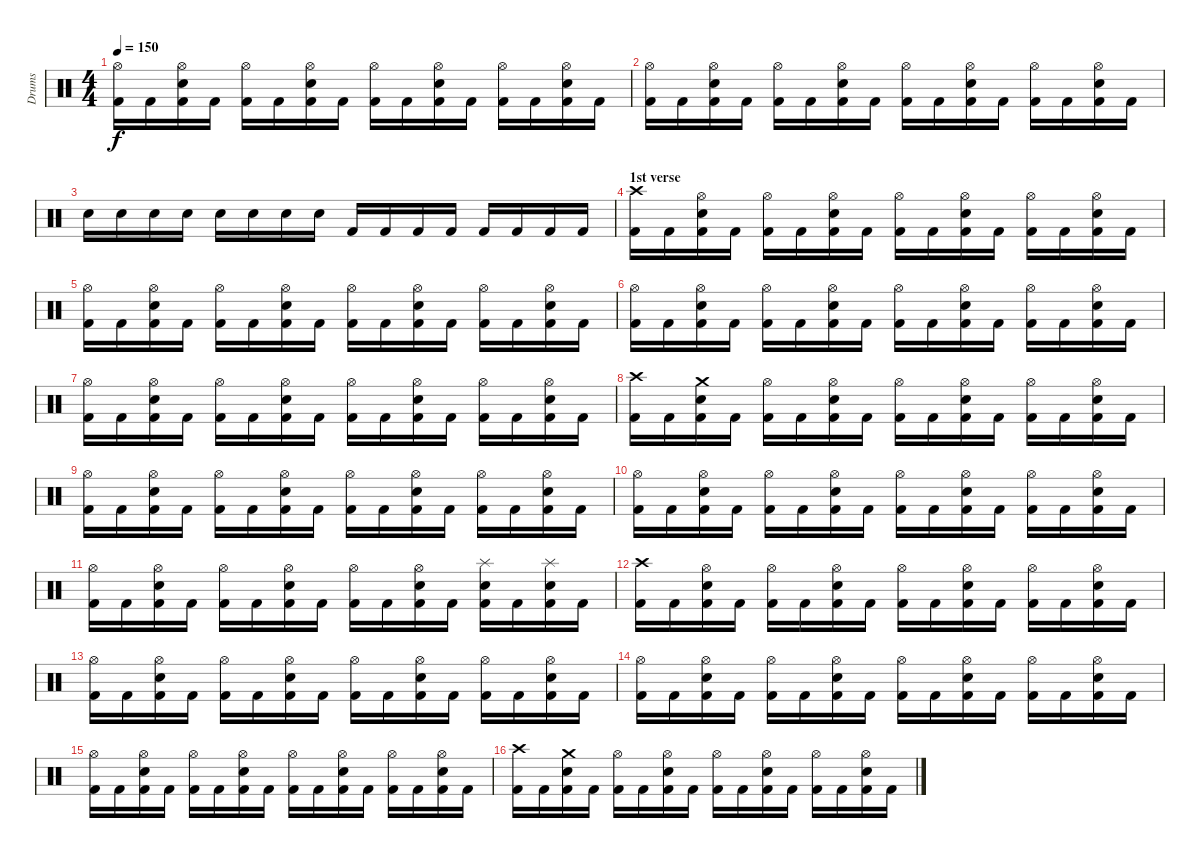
\track ("Drums" "Drums") {instrument percussion}
\staff {score}
\articulation defaults
\ts (4 4)
\tempo 150
\clef neutral
\ks c
("Hi-Hat (open)" "Kick (hit) 2").16{dy f} "Kick (hit) 2".16 ("Hi-Hat (open)" "Snare (hit) 2" "Kick (hit) 2").16 "Kick (hit) 2".16 ("Hi-Hat (open)" "Kick (hit) 2").16 "Kick (hit) 2".16 ("Hi-Hat (open)" "Snare (hit) 2" "Kick (hit) 2").16 "Kick (hit) 2".16 ("Hi-Hat (open)" "Kick (hit) 2").16 "Kick (hit) 2".16 ("Hi-Hat (open)" "Snare (hit) 2" "Kick (hit) 2").16 "Kick (hit) 2".16 ("Hi-Hat (open)" "Kick (hit) 2").16 "Kick (hit) 2".16 ("Hi-Hat (open)" "Snare (hit) 2" "Kick (hit) 2").16 "Kick (hit) 2".16 |
("Hi-Hat (open)" "Kick (hit) 2").16 "Kick (hit) 2".16 ("Hi-Hat (open)" "Snare (hit) 2" "Kick (hit) 2").16 "Kick (hit) 2".16 ("Hi-Hat (open)" "Kick (hit) 2").16 "Kick (hit) 2".16 ("Hi-Hat (open)" "Snare (hit) 2" "Kick (hit) 2").16 "Kick (hit) 2".16 ("Hi-Hat (open)" "Kick (hit) 2").16 "Kick (hit) 2".16 ("Hi-Hat (open)" "Snare (hit) 2" "Kick (hit) 2").16 "Kick (hit) 2".16 ("Hi-Hat (open)" "Kick (hit) 2").16 "Kick (hit) 2".16 ("Hi-Hat (open)" "Snare (hit) 2" "Kick (hit) 2").16 "Kick (hit) 2".16 |
"Snare (hit) 2".16 "Snare (hit) 2".16 "Snare (hit) 2".16 "Snare (hit) 2".16 "Snare (hit) 2".16 "Snare (hit) 2".16 "Snare (hit) 2".16 "Snare (hit) 2".16 "Kick (hit) 2".16 "Kick (hit) 2".16 "Kick (hit) 2".16 "Kick (hit) 2".16 "Kick (hit) 2".16 "Kick (hit) 2".16 "Kick (hit) 2".16 "Kick (hit) 2".16 |
\section ("" "1st verse")
("Crash high (hit)" "Kick (hit) 2").16 "Kick (hit) 2".16 ("Hi-Hat (open)" "Snare (hit) 2" "Kick (hit) 2").16 "Kick (hit) 2".16 ("Hi-Hat (open)" "Kick (hit) 2").16 "Kick (hit) 2".16 ("Hi-Hat (open)" "Snare (hit) 2" "Kick (hit) 2").16 "Kick (hit) 2".16 ("Hi-Hat (open)" "Kick (hit) 2").16 "Kick (hit) 2".16 ("Hi-Hat (open)" "Snare (hit) 2" "Kick (hit) 2").16 "Kick (hit) 2".16 ("Hi-Hat (open)" "Kick (hit) 2").16 "Kick (hit) 2".16 ("Hi-Hat (open)" "Snare (hit) 2" "Kick (hit) 2").16 "Kick (hit) 2".16 |
("Hi-Hat (open)" "Kick (hit) 2").16 "Kick (hit) 2".16 ("Hi-Hat (open)" "Snare (hit) 2" "Kick (hit) 2").16 "Kick (hit) 2".16 ("Hi-Hat (open)" "Kick (hit) 2").16 "Kick (hit) 2".16 ("Hi-Hat (open)" "Snare (hit) 2" "Kick (hit) 2").16 "Kick (hit) 2".16 ("Hi-Hat (open)" "Kick (hit) 2").16 "Kick (hit) 2".16 ("Hi-Hat (open)" "Snare (hit) 2" "Kick (hit) 2").16 "Kick (hit) 2".16 ("Hi-Hat (open)" "Kick (hit) 2").16 "Kick (hit) 2".16 ("Hi-Hat (open)" "Snare (hit) 2" "Kick (hit) 2").16 "Kick (hit) 2".16 |
("Hi-Hat (open)" "Kick (hit) 2").16 "Kick (hit) 2".16 ("Hi-Hat (open)" "Snare (hit) 2" "Kick (hit) 2").16 "Kick (hit) 2".16 ("Hi-Hat (open)" "Kick (hit) 2").16 "Kick (hit) 2".16 ("Hi-Hat (open)" "Snare (hit) 2" "Kick (hit) 2").16 "Kick (hit) 2".16 ("Hi-Hat (open)" "Kick (hit) 2").16 "Kick (hit) 2".16 ("Hi-Hat (open)" "Snare (hit) 2" "Kick (hit) 2").16 "Kick (hit) 2".16 ("Hi-Hat (open)" "Kick (hit) 2").16 "Kick (hit) 2".16 ("Hi-Hat (open)" "Snare (hit) 2" "Kick (hit) 2").16 "Kick (hit) 2".16 |
("Hi-Hat (open)" "Kick (hit) 2").16 "Kick (hit) 2".16 ("Hi-Hat (open)" "Snare (hit) 2" "Kick (hit) 2").16 "Kick (hit) 2".16 ("Hi-Hat (open)" "Kick (hit) 2").16 "Kick (hit) 2".16 ("Hi-Hat (open)" "Snare (hit) 2" "Kick (hit) 2").16 "Kick (hit) 2".16 ("Hi-Hat (open)" "Kick (hit) 2").16 "Kick (hit) 2".16 ("Hi-Hat (open)" "Snare (hit) 2" "Kick (hit) 2").16 "Kick (hit) 2".16 ("Hi-Hat (open)" "Kick (hit) 2").16 "Kick (hit) 2".16 ("Hi-Hat (open)" "Snare (hit) 2" "Kick (hit) 2").16 "Kick (hit) 2".16 |
("Crash high (hit)" "Kick (hit) 2").16 "Kick (hit) 2".16 ("Crash medium (hit)" "Snare (hit) 2" "Kick (hit) 2").16 "Kick (hit) 2".16 ("Hi-Hat (open)" "Kick (hit) 2").16 "Kick (hit) 2".16 ("Hi-Hat (open)" "Snare (hit) 2" "Kick (hit) 2").16 "Kick (hit) 2".16 ("Hi-Hat (open)" "Kick (hit) 2").16 "Kick (hit) 2".16 ("Hi-Hat (open)" "Snare (hit) 2" "Kick (hit) 2").16 "Kick (hit) 2".16 ("Hi-Hat (open)" "Kick (hit) 2").16 "Kick (hit) 2".16 ("Hi-Hat (open)" "Snare (hit) 2" "Kick (hit) 2").16 "Kick (hit) 2".16 |
("Hi-Hat (open)" "Kick (hit) 2").16 "Kick (hit) 2".16 ("Hi-Hat (open)" "Snare (hit) 2" "Kick (hit) 2").16 "Kick (hit) 2".16 ("Hi-Hat (open)" "Kick (hit) 2").16 "Kick (hit) 2".16 ("Hi-Hat (open)" "Snare (hit) 2" "Kick (hit) 2").16 "Kick (hit) 2".16 ("Hi-Hat (open)" "Kick (hit) 2").16 "Kick (hit) 2".16 ("Hi-Hat (open)" "Snare (hit) 2" "Kick (hit) 2").16 "Kick (hit) 2".16 ("Hi-Hat (open)" "Kick (hit) 2").16 "Kick (hit) 2".16 ("Hi-Hat (open)" "Snare (hit) 2" "Kick (hit) 2").16 "Kick (hit) 2".16 |
("Hi-Hat (open)" "Kick (hit) 2").16 "Kick (hit) 2".16 ("Hi-Hat (open)" "Snare (hit) 2" "Kick (hit) 2").16 "Kick (hit) 2".16 ("Hi-Hat (open)" "Kick (hit) 2").16 "Kick (hit) 2".16 ("Hi-Hat (open)" "Snare (hit) 2" "Kick (hit) 2").16 "Kick (hit) 2".16 ("Hi-Hat (open)" "Kick (hit) 2").16 "Kick (hit) 2".16 ("Hi-Hat (open)" "Snare (hit) 2" "Kick (hit) 2").16 "Kick (hit) 2".16 ("Hi-Hat (open)" "Kick (hit) 2").16 "Kick (hit) 2".16 ("Hi-Hat (open)" "Snare (hit) 2" "Kick (hit) 2").16 "Kick (hit) 2".16 |
("Hi-Hat (open)" "Kick (hit) 2").16 "Kick (hit) 2".16 ("Hi-Hat (open)" "Snare (hit) 2" "Kick (hit) 2").16 "Kick (hit) 2".16 ("Hi-Hat (open)" "Kick (hit) 2").16 "Kick (hit) 2".16 ("Hi-Hat (open)" "Snare (hit) 2" "Kick (hit) 2").16 "Kick (hit) 2".16 ("Hi-Hat (open)" "Kick (hit) 2").16 "Kick (hit) 2".16 ("Hi-Hat (open)" "Snare (hit) 2" "Kick (hit) 2").16 "Kick (hit) 2".16 ("Splash (hit)" "Snare (hit) 2" "Kick (hit) 2").16 "Kick (hit) 2".16 ("Splash (hit)" "Snare (hit) 2" "Kick (hit) 2").16 "Kick (hit) 2".16 |
("Crash high (hit)" "Kick (hit) 2").16 "Kick (hit) 2".16 ("Hi-Hat (open)" "Snare (hit) 2" "Kick (hit) 2").16 "Kick (hit) 2".16 ("Hi-Hat (open)" "Kick (hit) 2").16 "Kick (hit) 2".16 ("Hi-Hat (open)" "Snare (hit) 2" "Kick (hit) 2").16 "Kick (hit) 2".16 ("Hi-Hat (open)" "Kick (hit) 2").16 "Kick (hit) 2".16 ("Hi-Hat (open)" "Snare (hit) 2" "Kick (hit) 2").16 "Kick (hit) 2".16 ("Hi-Hat (open)" "Kick (hit) 2").16 "Kick (hit) 2".16 ("Hi-Hat (open)" "Snare (hit) 2" "Kick (hit) 2").16 "Kick (hit) 2".16 |
("Hi-Hat (open)" "Kick (hit) 2").16 "Kick (hit) 2".16 ("Hi-Hat (open)" "Snare (hit) 2" "Kick (hit) 2").16 "Kick (hit) 2".16 ("Hi-Hat (open)" "Kick (hit) 2").16 "Kick (hit) 2".16 ("Hi-Hat (open)" "Snare (hit) 2" "Kick (hit) 2").16 "Kick (hit) 2".16 ("Hi-Hat (open)" "Kick (hit) 2").16 "Kick (hit) 2".16 ("Hi-Hat (open)" "Snare (hit) 2" "Kick (hit) 2").16 "Kick (hit) 2".16 ("Hi-Hat (open)" "Kick (hit) 2").16 "Kick (hit) 2".16 ("Hi-Hat (open)" "Snare (hit) 2" "Kick (hit) 2").16 "Kick (hit) 2".16 |
("Hi-Hat (open)" "Kick (hit) 2").16 "Kick (hit) 2".16 ("Hi-Hat (open)" "Snare (hit) 2" "Kick (hit) 2").16 "Kick (hit) 2".16 ("Hi-Hat (open)" "Kick (hit) 2").16 "Kick (hit) 2".16 ("Hi-Hat (open)" "Snare (hit) 2" "Kick (hit) 2").16 "Kick (hit) 2".16 ("Hi-Hat (open)" "Kick (hit) 2").16 "Kick (hit) 2".16 ("Hi-Hat (open)" "Snare (hit) 2" "Kick (hit) 2").16 "Kick (hit) 2".16 ("Hi-Hat (open)" "Kick (hit) 2").16 "Kick (hit) 2".16 ("Hi-Hat (open)" "Snare (hit) 2" "Kick (hit) 2").16 "Kick (hit) 2".16 |
("Hi-Hat (open)" "Kick (hit) 2").16 "Kick (hit) 2".16 ("Hi-Hat (open)" "Snare (hit) 2" "Kick (hit) 2").16 "Kick (hit) 2".16 ("Hi-Hat (open)" "Kick (hit) 2").16 "Kick (hit) 2".16 ("Hi-Hat (open)" "Snare (hit) 2" "Kick (hit) 2").16 "Kick (hit) 2".16 ("Hi-Hat (open)" "Kick (hit) 2").16 "Kick (hit) 2".16 ("Hi-Hat (open)" "Snare (hit) 2" "Kick (hit) 2").16 "Kick (hit) 2".16 ("Hi-Hat (open)" "Kick (hit) 2").16 "Kick (hit) 2".16 ("Hi-Hat (open)" "Snare (hit) 2" "Kick (hit) 2").16 "Kick (hit) 2".16 |
("Crash high (hit)" "Kick (hit) 2").16 "Kick (hit) 2".16 ("Crash medium (hit)" "Snare (hit) 2" "Kick (hit) 2").16 "Kick (hit) 2".16 ("Hi-Hat (open)" "Kick (hit) 2").16 "Kick (hit) 2".16 ("Hi-Hat (open)" "Snare (hit) 2" "Kick (hit) 2").16 "Kick (hit) 2".16 ("Hi-Hat (open)" "Kick (hit) 2").16 "Kick (hit) 2".16 ("Hi-Hat (open)" "Snare (hit) 2" "Kick (hit) 2").16 "Kick (hit) 2".16 ("Hi-Hat (open)" "Kick (hit) 2").16 "Kick (hit) 2".16 ("Hi-Hat (open)" "Snare (hit) 2" "Kick (hit) 2").16 "Kick (hit) 2".16
